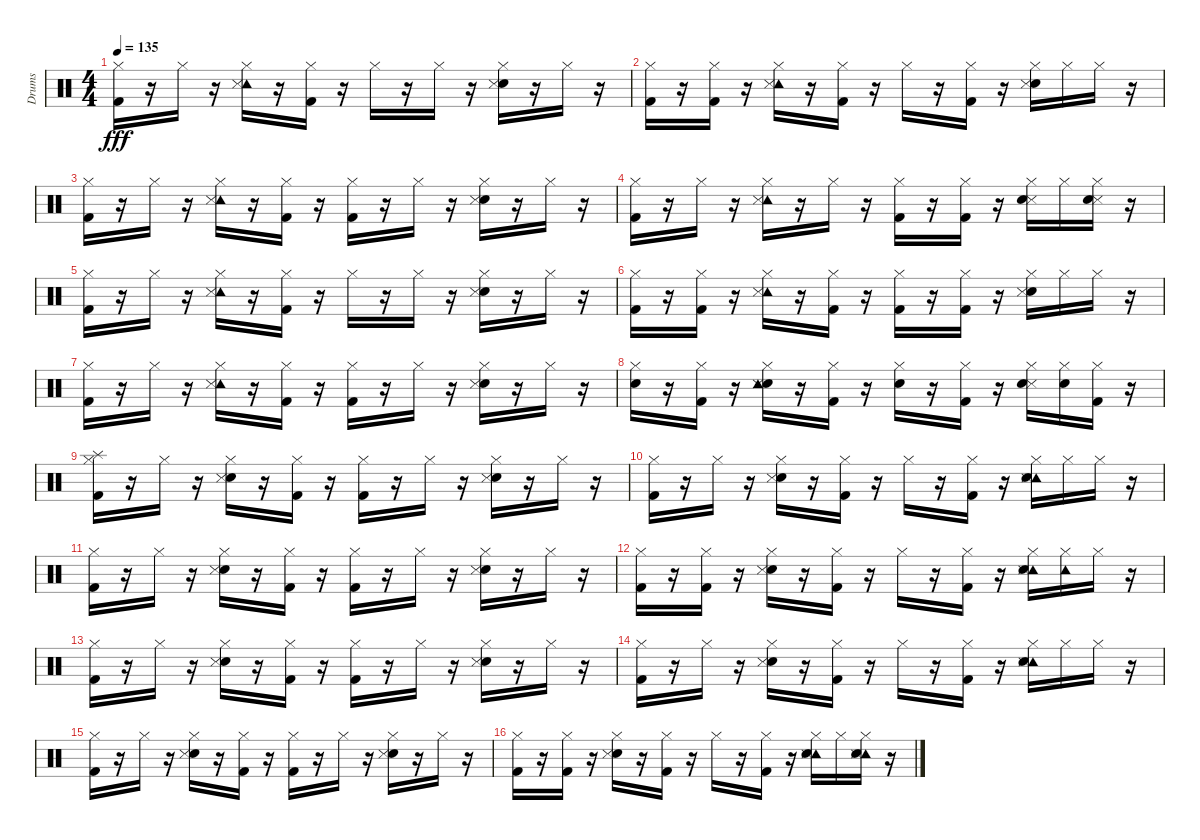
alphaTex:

\track ("Drums" "Drums") {instrument percussion}
\staff {score}
\articulation defaults
\ts (4 4)
\tempo 135
\clef neutral
\ks c
("Kick (hit) 2" "Hi-Hat (closed)").16{dy fff} r.16 "Hi-Hat (closed)".16 r.16 ("Tambourine (hit)" "Snare (side stick) 3" "Hi-Hat (closed)").16 r.16 ("Kick (hit) 2" "Hi-Hat (closed)").16 r.16 "Hi-Hat (closed)".16 r.16 "Hi-Hat (closed)".16 r.16 ("Electric Snare (hit)" "Snare (side stick) 3" "Hi-Hat (closed)").16 r.16 "Hi-Hat (closed)".16 r.16 |
("Kick (hit) 2" "Hi-Hat (closed)").16 r.16 ("Kick (hit) 2" "Hi-Hat (closed)").16 r.16 ("Tambourine (hit)" "Snare (side stick) 3" "Hi-Hat (closed)").16 r.16 ("Kick (hit) 2" "Hi-Hat (closed)").16 r.16 "Hi-Hat (closed)".16 r.16 ("Kick (hit) 2" "Hi-Hat (closed)").16 r.16 ("Electric Snare (hit)" "Snare (side stick) 3" "Hi-Hat (closed)").16 "Hi-Hat (closed)".16 "Hi-Hat (closed)".16 r.16 |
("Kick (hit) 2" "Hi-Hat (closed)").16 r.16 "Hi-Hat (closed)".16 r.16 ("Tambourine (hit)" "Snare (side stick) 3" "Hi-Hat (closed)").16 r.16 ("Kick (hit) 2" "Hi-Hat (closed)").16 r.16 ("Kick (hit) 2" "Hi-Hat (closed)").16 r.16 "Hi-Hat (closed)".16 r.16 ("Electric Snare (hit)" "Snare (side stick) 3" "Hi-Hat (closed)").16 r.16 "Hi-Hat (closed)".16 r.16 |
("Kick (hit) 2" "Hi-Hat (closed)").16 r.16 "Hi-Hat (closed)".16 r.16 ("Tambourine (hit)" "Snare (side stick) 3" "Hi-Hat (closed)").16 r.16 "Hi-Hat (closed)".16 r.16 ("Kick (hit) 2" "Hi-Hat (closed)").16 r.16 ("Kick (hit) 2" "Hi-Hat (closed)").16 r.16 ("Snare (side stick) 3" "Electric Snare (hit)" "Hi-Hat (closed)").16 "Hi-Hat (closed)".16 ("Snare (side stick) 3" "Electric Snare (hit)" "Hi-Hat (closed)").16 r.16 |
("Kick (hit) 2" "Hi-Hat (closed)").16 r.16 "Hi-Hat (closed)".16 r.16 ("Tambourine (hit)" "Snare (side stick) 3" "Hi-Hat (closed)").16 r.16 ("Kick (hit) 2" "Hi-Hat (closed)").16 r.16 "Hi-Hat (closed)".16 r.16 "Hi-Hat (closed)".16 r.16 ("Electric Snare (hit)" "Snare (side stick) 3" "Hi-Hat (closed)").16 r.16 "Hi-Hat (closed)".16 r.16 |
("Kick (hit) 2" "Hi-Hat (closed)").16 r.16 ("Kick (hit) 2" "Hi-Hat (closed)").16 r.16 ("Tambourine (hit)" "Snare (side stick) 3" "Hi-Hat (closed)").16 r.16 ("Kick (hit) 2" "Hi-Hat (closed)").16 r.16 ("Kick (hit) 2" "Hi-Hat (closed)").16 r.16 ("Kick (hit) 2" "Hi-Hat (closed)").16 r.16 ("Electric Snare (hit)" "Snare (side stick) 3" "Hi-Hat (closed)").16 "Hi-Hat (closed)".16 "Hi-Hat (closed)".16 r.16 |
("Kick (hit) 2" "Hi-Hat (closed)").16 r.16 "Hi-Hat (closed)".16 r.16 ("Tambourine (hit)" "Snare (side stick) 3" "Hi-Hat (closed)").16 r.16 ("Kick (hit) 2" "Hi-Hat (closed)").16 r.16 ("Kick (hit) 2" "Hi-Hat (closed)").16 r.16 "Hi-Hat (closed)".16 r.16 ("Electric Snare (hit)" "Snare (side stick) 3" "Hi-Hat (closed)").16 r.16 "Hi-Hat (closed)".16 r.16 |
("Electric Snare (hit)" "Hi-Hat (closed)").16 r.16 ("Kick (hit) 2" "Hi-Hat (closed)").16 r.16 ("Electric Snare (hit)" "Tambourine (hit)" "Snare (side stick) 3" "Hi-Hat (closed)").16 r.16 ("Kick (hit) 2" "Hi-Hat (closed)").16 r.16 ("Electric Snare (hit)" "Hi-Hat (closed)").16 r.16 ("Kick (hit) 2" "Hi-Hat (closed)").16 r.16 ("Snare (side stick) 3" "Electric Snare (hit)" "Hi-Hat (closed)").16 ("Electric Snare (hit)" "Hi-Hat (closed)").16 ("Kick (hit) 2" "Hi-Hat (closed)").16 r.16 |
("Splash (hit)" "Kick (hit) 2" "Hi-Hat (closed)").16 r.16 "Hi-Hat (closed)".16 r.16 ("Electric Snare (hit)" "Snare (side stick) 3" "Hi-Hat (closed)").16 r.16 ("Kick (hit) 2" "Hi-Hat (closed)").16 r.16 ("Kick (hit) 2" "Hi-Hat (closed)").16 r.16 "Hi-Hat (closed)".16 r.16 ("Electric Snare (hit)" "Snare (side stick) 3" "Hi-Hat (closed)").16 r.16 "Hi-Hat (closed)".16 r.16 |
("Kick (hit) 2" "Hi-Hat (closed)").16 r.16 "Hi-Hat (closed)".16 r.16 ("Electric Snare (hit)" "Snare (side stick) 3" "Hi-Hat (closed)").16 r.16 ("Kick (hit) 2" "Hi-Hat (closed)").16 r.16 "Hi-Hat (closed)".16 r.16 ("Kick (hit) 2" "Hi-Hat (closed)").16 r.16 ("Tambourine (hit)" "Electric Snare (hit)" "Snare (side stick) 3" "Hi-Hat (closed)").16 "Hi-Hat (closed)".16 "Hi-Hat (closed)".16 r.16 |
("Kick (hit) 2" "Hi-Hat (closed)").16 r.16 "Hi-Hat (closed)".16 r.16 ("Electric Snare (hit)" "Snare (side stick) 3" "Hi-Hat (closed)").16 r.16 ("Kick (hit) 2" "Hi-Hat (closed)").16 r.16 ("Kick (hit) 2" "Hi-Hat (closed)").16 r.16 "Hi-Hat (closed)".16 r.16 ("Electric Snare (hit)" "Snare (side stick) 3" "Hi-Hat (closed)").16 r.16 "Hi-Hat (closed)".16 r.16 |
("Hi-Hat (closed)" "Kick (hit) 2").16 r.16 ("Kick (hit) 2" "Hi-Hat (closed)").16 r.16 ("Electric Snare (hit)" "Hi-Hat (closed)" "Snare (side stick) 3").16 r.16 ("Hi-Hat (closed)" "Kick (hit) 2").16 r.16 "Hi-Hat (closed)".16 r.16 ("Hi-Hat (closed)" "Kick (hit) 2").16 r.16 ("Tambourine (hit)" "Electric Snare (hit)" "Hi-Hat (closed)" "Snare (side stick) 3").16 ("Tambourine (hit)" "Hi-Hat (closed)").16 "Hi-Hat (closed)".16 r.16 |
("Kick (hit) 2" "Hi-Hat (closed)").16 r.16 "Hi-Hat (closed)".16 r.16 ("Electric Snare (hit)" "Snare (side stick) 3" "Hi-Hat (closed)").16 r.16 ("Kick (hit) 2" "Hi-Hat (closed)").16 r.16 ("Kick (hit) 2" "Hi-Hat (closed)").16 r.16 "Hi-Hat (closed)".16 r.16 ("Electric Snare (hit)" "Snare (side stick) 3" "Hi-Hat (closed)").16 r.16 "Hi-Hat (closed)".16 r.16 |
("Kick (hit) 2" "Hi-Hat (closed)").16 r.16 "Hi-Hat (closed)".16 r.16 ("Electric Snare (hit)" "Snare (side stick) 3" "Hi-Hat (closed)").16 r.16 ("Kick (hit) 2" "Hi-Hat (closed)").16 r.16 "Hi-Hat (closed)".16 r.16 ("Kick (hit) 2" "Hi-Hat (closed)").16 r.16 ("Tambourine (hit)" "Electric Snare (hit)" "Snare (side stick) 3" "Hi-Hat (closed)").16 "Hi-Hat (closed)".16 "Hi-Hat (closed)".16 r.16 |
("Kick (hit) 2" "Hi-Hat (closed)").16 r.16 "Hi-Hat (closed)".16 r.16 ("Electric Snare (hit)" "Snare (side stick) 3" "Hi-Hat (closed)").16 r.16 ("Kick (hit) 2" "Hi-Hat (closed)").16 r.16 ("Kick (hit) 2" "Hi-Hat (closed)").16 r.16 "Hi-Hat (closed)".16 r.16 ("Electric Snare (hit)" "Snare (side stick) 3" "Hi-Hat (closed)").16 r.16 "Hi-Hat (closed)".16 r.16 |
("Hi-Hat (closed)" "Kick (hit) 2").16 r.16 ("Kick (hit) 2" "Hi-Hat (closed)").16 r.16 ("Electric Snare (hit)" "Hi-Hat (closed)" "Snare (side stick) 3").16 r.16 ("Hi-Hat (closed)" "Kick (hit) 2").16 r.16 "Hi-Hat (closed)".16 r.16 ("Hi-Hat (closed)" "Kick (hit) 2").16 r.16 ("Tambourine (hit)" "Electric Snare (hit)" "Hi-Hat (closed)" "Snare (side stick) 3").16 "Hi-Hat (closed)".16 ("Tambourine (hit)" "Snare (side stick) 3" "Electric Snare (hit)" "Hi-Hat (closed)").16 r.16
